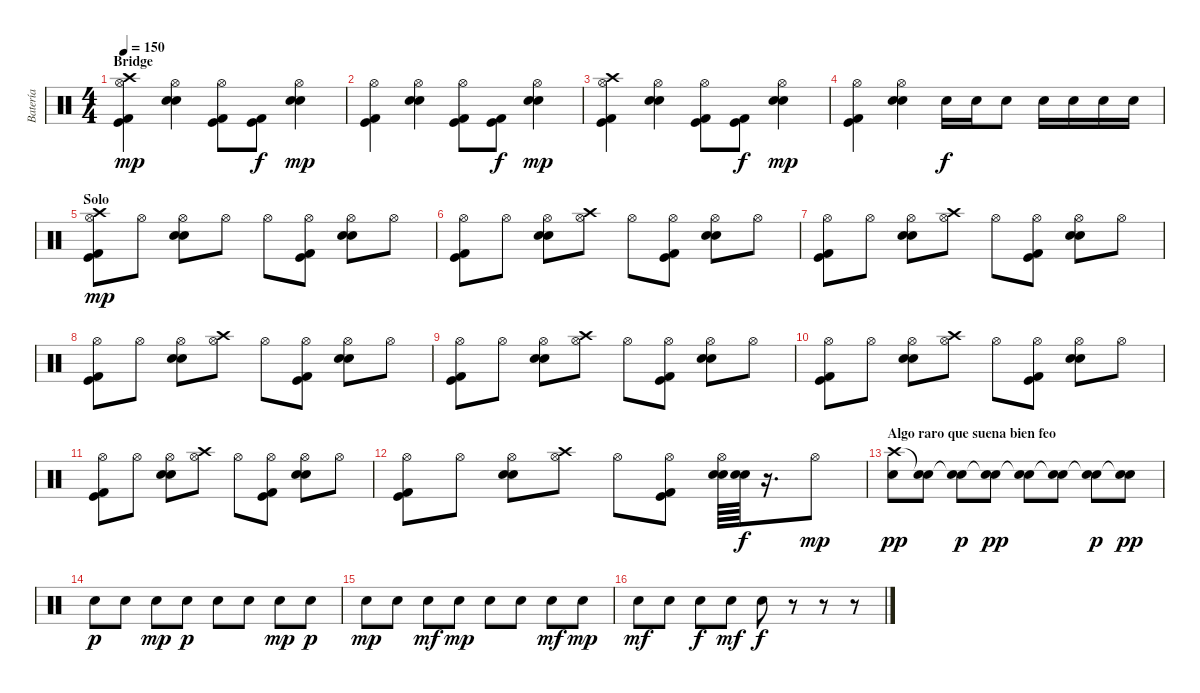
\track ("Batería" "Batería") {instrument percussion}
\staff {score}
\articulation defaults
\ts (4 4)
\section ("" "Bridge")
\tempo 150
\clef neutral
\ks c
("Crash high (hit)" "Hi-Hat (open)" "Kick (hit)" "Kick (hit) 2").4{dy mp} ("Hi-Hat (open)" "Snare (hit) 2" "Electric Snare (hit)").4 ("Hi-Hat (open)" "Kick (hit)" "Kick (hit) 2").8 ("Kick (hit) 2" "Kick (hit)").8{dy f} ("Hi-Hat (open)" "Snare (hit) 2" "Electric Snare (hit)").4{dy mp} |
("Hi-Hat (open)" "Kick (hit)" "Kick (hit) 2").4 ("Hi-Hat (open)" "Snare (hit) 2" "Electric Snare (hit)").4 ("Hi-Hat (open)" "Kick (hit)" "Kick (hit) 2").8 ("Kick (hit) 2" "Kick (hit)").8{dy f} ("Hi-Hat (open)" "Snare (hit) 2" "Electric Snare (hit)").4{dy mp} |
("Crash high (hit)" "Hi-Hat (open)" "Kick (hit)" "Kick (hit) 2").4 ("Hi-Hat (open)" "Snare (hit) 2" "Electric Snare (hit)").4 ("Hi-Hat (open)" "Kick (hit)" "Kick (hit) 2").8 ("Kick (hit)" "Kick (hit) 2").8{dy f} ("Hi-Hat (open)" "Snare (hit) 2" "Electric Snare (hit)").4{dy mp} |
("Hi-Hat (open)" "Kick (hit)" "Kick (hit) 2").4 ("Hi-Hat (open)" "Snare (hit) 2" "Electric Snare (hit)").4 "Electric Snare (hit)".16{dy f} "Electric Snare (hit)".16 "Electric Snare (hit)".8 "Electric Snare (hit)".16 "Electric Snare (hit)".16 "Electric Snare (hit)".16 "Electric Snare (hit)".16 |
\section ("" "Solo")
("Crash high (hit)" "Kick (hit) 2" "Kick (hit)" "Hi-Hat (open)").8{dy mp} "Hi-Hat (open)".8 ("Snare (hit) 2" "Electric Snare (hit)" "Hi-Hat (open)").8 "Hi-Hat (open)".8 "Hi-Hat (open)".8 ("Kick (hit) 2" "Kick (hit)" "Hi-Hat (open)").8 ("Snare (hit) 2" "Electric Snare (hit)" "Hi-Hat (open)").8 "Hi-Hat (open)".8 |
("Kick (hit) 2" "Kick (hit)" "Hi-Hat (open)").8 "Hi-Hat (open)".8 ("Snare (hit) 2" "Electric Snare (hit)" "Hi-Hat (open)").8 ("Crash high (hit)" "Hi-Hat (open)").8 "Hi-Hat (open)".8 ("Kick (hit) 2" "Kick (hit)" "Hi-Hat (open)").8 ("Snare (hit) 2" "Electric Snare (hit)" "Hi-Hat (open)").8 "Hi-Hat (open)".8 |
("Kick (hit) 2" "Kick (hit)" "Hi-Hat (open)").8 "Hi-Hat (open)".8 ("Snare (hit) 2" "Electric Snare (hit)" "Hi-Hat (open)").8 ("Crash high (hit)" "Hi-Hat (open)").8 "Hi-Hat (open)".8 ("Kick (hit) 2" "Kick (hit)" "Hi-Hat (open)").8 ("Snare (hit) 2" "Electric Snare (hit)" "Hi-Hat (open)").8 "Hi-Hat (open)".8 |
("Kick (hit) 2" "Kick (hit)" "Hi-Hat (open)").8 "Hi-Hat (open)".8 ("Snare (hit) 2" "Electric Snare (hit)" "Hi-Hat (open)").8 ("Crash high (hit)" "Hi-Hat (open)").8 "Hi-Hat (open)".8 ("Kick (hit) 2" "Kick (hit)" "Hi-Hat (open)").8 ("Snare (hit) 2" "Electric Snare (hit)" "Hi-Hat (open)").8 "Hi-Hat (open)".8 |
("Kick (hit) 2" "Kick (hit)" "Hi-Hat (open)").8 "Hi-Hat (open)".8 ("Snare (hit) 2" "Electric Snare (hit)" "Hi-Hat (open)").8 ("Crash high (hit)" "Hi-Hat (open)").8 "Hi-Hat (open)".8 ("Kick (hit) 2" "Kick (hit)" "Hi-Hat (open)").8 ("Snare (hit) 2" "Electric Snare (hit)" "Hi-Hat (open)").8 "Hi-Hat (open)".8 |
("Kick (hit) 2" "Kick (hit)" "Hi-Hat (open)").8 "Hi-Hat (open)".8 ("Snare (hit) 2" "Electric Snare (hit)" "Hi-Hat (open)").8 ("Crash high (hit)" "Hi-Hat (open)").8 "Hi-Hat (open)".8 ("Kick (hit) 2" "Kick (hit)" "Hi-Hat (open)").8 ("Snare (hit) 2" "Electric Snare (hit)" "Hi-Hat (open)").8 "Hi-Hat (open)".8 |
("Kick (hit) 2" "Kick (hit)" "Hi-Hat (open)").8 "Hi-Hat (open)".8 ("Snare (hit) 2" "Electric Snare (hit)" "Hi-Hat (open)").8 ("Crash high (hit)" "Hi-Hat (open)").8 "Hi-Hat (open)".8 ("Kick (hit) 2" "Kick (hit)" "Hi-Hat (open)").8 ("Snare (hit) 2" "Electric Snare (hit)" "Hi-Hat (open)").8 "Hi-Hat (open)".8 |
("Kick (hit) 2" "Kick (hit)" "Hi-Hat (open)").8 "Hi-Hat (open)".8 ("Snare (hit) 2" "Electric Snare (hit)" "Hi-Hat (open)").8 ("Crash high (hit)" "Hi-Hat (open)").8 "Hi-Hat (open)".8 ("Kick (hit) 2" "Kick (hit)" "Hi-Hat (open)").8 ("Snare (hit) 2" "Electric Snare (hit)" "Hi-Hat (open)").64 ("Snare (hit) 2" "Electric Snare (hit)").64{dy f} r.16{d} "Hi-Hat (open)".8{dy mp} |
\section ("" "Algo raro que suena bien feo")
("Crash high (hit)" "Electric Snare (hit)").8{dy pp} ("Snare (hit)"{t} "Electric Snare (hit)").8 ("Snare (hit)"{t} "Electric Snare (hit)").8{dy p} ("Snare (hit)"{t} "Electric Snare (hit)").8{dy pp} ("Snare (hit)"{t} "Electric Snare (hit)").8 ("Snare (hit)"{t} "Electric Snare (hit)").8 ("Snare (hit)"{t} "Electric Snare (hit)").8{dy p} ("Snare (hit)"{t} "Electric Snare (hit)").8{dy pp} |
"Electric Snare (hit)".8{dy p} "Electric Snare (hit)".8 "Electric Snare (hit)".8{dy mp} "Electric Snare (hit)".8{dy p} "Electric Snare (hit)".8 "Electric Snare (hit)".8 "Electric Snare (hit)".8{dy mp} "Electric Snare (hit)".8{dy p} |
"Electric Snare (hit)".8{dy mp} "Electric Snare (hit)".8 "Electric Snare (hit)".8{dy mf} "Electric Snare (hit)".8{dy mp} "Electric Snare (hit)".8 "Electric Snare (hit)".8 "Electric Snare (hit)".8{dy mf} "Electric Snare (hit)".8{dy mp} |
"Electric Snare (hit)".8{dy mf} "Electric Snare (hit)".8 "Electric Snare (hit)".8{dy f} "Electric Snare (hit)".8{dy mf} "Electric Snare (hit)".8{dy f} r.8 r.8 r.8
